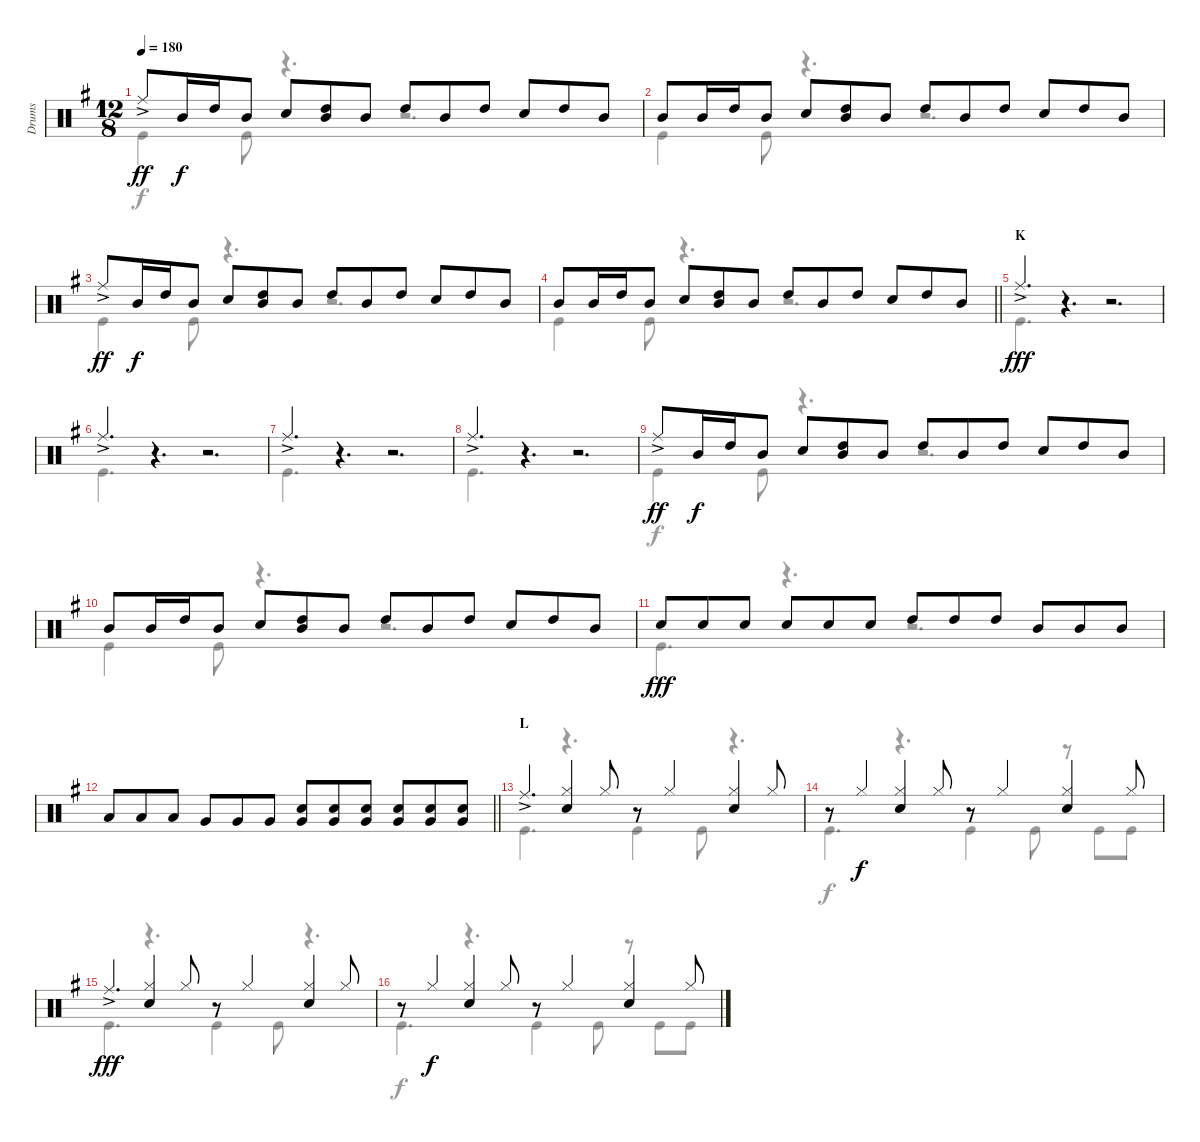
\track ("Drums" "Drums") {instrument percussion}
\staff {score}
\articulation defaults
\voice
\ts (12 8)
\tempo 180
\clef neutral
\ks g "Ride (middle)"{ac}.8{dy ff} "Mid Tom (hit)".16{dy f} "High Tom (hit)".16 "Mid Tom (hit)".8 "Snare (hit) 2".8
("High Tom (hit)" "Mid Tom (hit)").8 "Mid Tom (hit)".8 "High Tom (hit)".8 "Mid Tom (hit)".8 "High Tom (hit)".8 "Snare (hit) 2".8 "High Tom (hit)".8 "Mid Tom (hit)".8 |
"Mid Tom (hit)".8 "Mid Tom (hit)".16 "High Tom (hit)".16 "Mid Tom (hit)".8 "Snare (hit) 2".8 ("High Tom (hit)" "Mid Tom (hit)").8 "Mid Tom (hit)".8 "High Tom (hit)".8 "Mid Tom (hit)".8 "High Tom (hit)".8 "Snare (hit) 2".8 "High Tom (hit)".8 "Mid Tom (hit)".8 |
"Ride (middle)"{ac}.8{dy ff} "Mid Tom (hit)".16{dy f} "High Tom (hit)".16 "Mid Tom (hit)".8 "Snare (hit) 2".8 ("High Tom (hit)" "Mid Tom (hit)").8 "Mid Tom (hit)".8 "High Tom (hit)".8 "Mid Tom (hit)".8 "High Tom (hit)".8 "Snare (hit) 2".8 "High Tom (hit)".8 "Mid Tom (hit)".8 |
\barLineRight lightlight "Mid Tom (hit)".8 "Mid Tom (hit)".16 "High Tom (hit)".16 "Mid Tom (hit)".8 "Snare (hit) 2".8
("High Tom (hit)" "Mid Tom (hit)").8 "Mid Tom (hit)".8 "High Tom (hit)".8 "Mid Tom (hit)".8 "High Tom (hit)".8 "Snare (hit) 2".8 "High Tom (hit)".8 "Mid Tom (hit)".8 |
\section ("" "K")
"Ride (middle)"{ac}.4{d dy fff} r.4{d} r.2{d} |
"Ride (middle)"{ac}.4{d} r.4{d} r.2{d} |
"Ride (middle)"{ac}.4{d} r.4{d} r.2{d} |
"Ride (middle)"{ac}.4{d} r.4{d} r.2{d} |
"Ride (middle)"{ac}.8{dy ff} "Mid Tom (hit)".16{dy f} "High Tom (hit)".16 "Mid Tom (hit)".8 "Snare (hit) 2".8 ("High Tom (hit)" "Mid Tom (hit)").8 "Mid Tom (hit)".8 "High Tom (hit)".8 "Mid Tom (hit)".8 "High Tom (hit)".8 "Snare (hit) 2".8 "High Tom (hit)".8 "Mid Tom (hit)".8 |
"Mid Tom (hit)".8 "Mid Tom (hit)".16 "High Tom (hit)".16 "Mid Tom (hit)".8 "Snare (hit) 2".8 ("High Tom (hit)" "Mid Tom (hit)").8 "Mid Tom (hit)".8 "High Tom (hit)".8 "Mid Tom (hit)".8 "High Tom (hit)".8 "Snare (hit) 2".8 "High Tom (hit)".8 "Mid Tom (hit)".8 |
"Snare (hit) 2".8{dy fff} "Snare (hit) 2".8 "Snare (hit) 2".8 "Snare (hit) 2".8 "Snare (hit) 2".8 "Snare (hit) 2".8 "High Tom (hit)".8 "High Tom (hit)".8 "High Tom (hit)".8 "Mid Tom (hit)".8 "Mid Tom (hit)".8 "Mid Tom (hit)".8 |
\barLineRight lightlight "Low Tom (hit)".8 "Low Tom (hit)".8 "Low Tom (hit)".8 "Very Low Tom (hit)".8 "Very Low Tom (hit)".8 "Very Low Tom (hit)".8
("Very Low Tom (hit)" "Snare (hit) 2").8 ("Very Low Tom (hit)" "Snare (hit) 2").8 ("Very Low Tom (hit)" "Snare (hit) 2").8 ("Very Low Tom (hit)" "Snare (hit) 2").8 ("Very Low Tom (hit)" "Snare (hit) 2").8 ("Very Low Tom (hit)" "Snare (hit) 2").8 |
\section ("" "L")
"Ride (middle)"{ac}.4{d} ("Hi-Hat (closed)" "Snare (hit) 2").4 "Hi-Hat (closed)".8 r.8 "Hi-Hat (closed)".4 ("Hi-Hat (closed)" "Snare (hit) 2").4 "Hi-Hat (closed)".8 |
r.8 "Hi-Hat (closed)".4{dy f} ("Hi-Hat (closed)" "Snare (hit) 2").4 "Hi-Hat (closed)".8 r.8 "Hi-Hat (closed)".4 ("Hi-Hat (closed)" "Snare (hit) 2").4 "Hi-Hat (closed)".8 |
"Ride (middle)"{ac}.4{d dy fff} ("Hi-Hat (closed)" "Snare (hit) 2").4 "Hi-Hat (closed)".8 r.8 "Hi-Hat (closed)".4 ("Hi-Hat (closed)" "Snare (hit) 2").4 "Hi-Hat (closed)".8 |
r.8 "Hi-Hat (closed)".4{dy f} ("Hi-Hat (closed)" "Snare (hit) 2").4 "Hi-Hat (closed)".8 r.8 "Hi-Hat (closed)".4 ("Hi-Hat (closed)" "Snare (hit) 2").4 "Hi-Hat (closed)".8
\voice
\clef neutral
\ottava regular
\simile none
\ks g "Kick (hit)".4{dy f} "Kick (hit)".8
r.4{d} r.2{d} |
"Kick (hit)".4 "Kick (hit)".8 r.4{d} r.2{d} |
"Kick (hit)".4 "Kick (hit)".8 r.4{d} r.2{d} |
\barLineRight lightlight "Kick (hit)".4 "Kick (hit)".8
r.4{d} r.2{d} |
"Kick (hit)".4{d dy fff} r.4{d} r.2{d} |
"Kick (hit)".4{d} r.4{d} r.2{d} |
"Kick (hit)".4{d} r.4{d} r.2{d} |
"Kick (hit)".4{d} r.4{d} r.2{d} |
"Kick (hit)".4{dy f} "Kick (hit)".8 r.4{d} r.2{d} |
"Kick (hit)".4 "Kick (hit)".8 r.4{d} r.2{d} |
"Kick (hit)".4{d dy fff} r.4{d} r.2{d} |
\barLineRight lightlight
|
"Kick (hit)".4{d} r.4{d} "Kick (hit)".4 "Kick (hit)".8 r.4{d} |
"Kick (hit)".4{d dy f} r.4{d} "Kick (hit)".4 "Kick (hit)".8 r.8 "Kick (hit)".8 "Kick (hit)".8 |
"Kick (hit)".4{d dy fff} r.4{d} "Kick (hit)".4 "Kick (hit)".8 r.4{d} |
"Kick (hit)".4{d dy f} r.4{d} "Kick (hit)".4 "Kick (hit)".8 r.8 "Kick (hit)".8 "Kick (hit)".8
